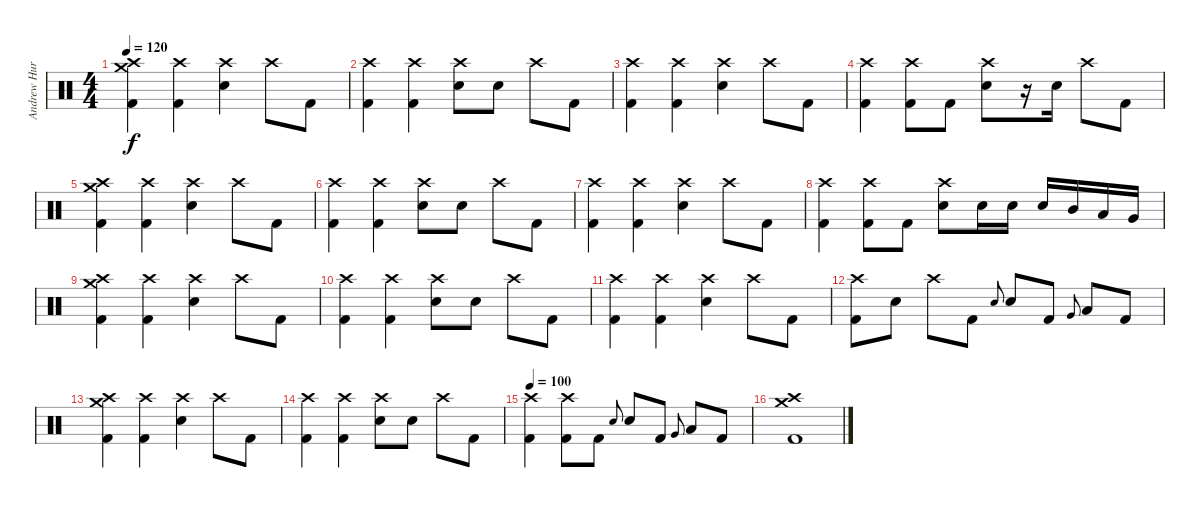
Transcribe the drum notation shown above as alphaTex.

\track ("Andrew Hurley (Drums)" "Andrew Hur") {instrument percussion}
\staff {score}
\articulation defaults
\ts (4 4)
\tempo 120
\clef neutral
\ks c
("Crash high (hit)" "Crash medium (hit)" "Kick (hit) 2").4{dy f} ("Crash high (hit)" "Kick (hit) 2").4 ("Crash high (hit)" "Snare (hit) 2").4 "Crash high (hit)".8 "Kick (hit) 2".8 |
("Crash high (hit)" "Kick (hit) 2").4 ("Crash high (hit)" "Kick (hit) 2").4 ("Crash high (hit)" "Snare (hit) 2").8 "Snare (hit) 2".8 "Crash high (hit)".8 "Kick (hit) 2".8 |
("Crash high (hit)" "Kick (hit) 2").4 ("Crash high (hit)" "Kick (hit) 2").4 ("Crash high (hit)" "Snare (hit) 2").4 "Crash high (hit)".8 "Kick (hit) 2".8 |
("Crash high (hit)" "Kick (hit) 2").4 ("Crash high (hit)" "Kick (hit) 2").8 "Kick (hit) 2".8 ("Crash high (hit)" "Snare (hit) 2").8 r.16 "Snare (hit) 2".16 "Crash high (hit)".8 "Kick (hit) 2".8 |
("Crash high (hit)" "Crash medium (hit)" "Kick (hit) 2").4 ("Crash high (hit)" "Kick (hit) 2").4 ("Crash high (hit)" "Snare (hit) 2").4 "Crash high (hit)".8 "Kick (hit) 2".8 |
("Crash high (hit)" "Kick (hit) 2").4 ("Crash high (hit)" "Kick (hit) 2").4 ("Crash high (hit)" "Snare (hit) 2").8 "Snare (hit) 2".8 "Crash high (hit)".8 "Kick (hit) 2".8 |
("Crash high (hit)" "Kick (hit) 2").4 ("Crash high (hit)" "Kick (hit) 2").4 ("Crash high (hit)" "Snare (hit) 2").4 "Crash high (hit)".8 "Kick (hit) 2".8 |
("Crash high (hit)" "Kick (hit) 2").4 ("Crash high (hit)" "Kick (hit) 2").8 "Kick (hit) 2".8 ("Crash high (hit)" "Snare (hit) 2").8 "Snare (hit) 2".16 "Snare (hit) 2".16 "Snare (hit) 2".16 "Mid Tom (hit)".16 "Low Tom (hit)".16 "Very Low Tom (hit)".16 |
("Crash high (hit)" "Crash medium (hit)" "Kick (hit) 2").4 ("Crash high (hit)" "Kick (hit) 2").4 ("Crash high (hit)" "Snare (hit) 2").4 "Crash high (hit)".8 "Kick (hit) 2".8 |
("Crash high (hit)" "Kick (hit) 2").4 ("Crash high (hit)" "Kick (hit) 2").4 ("Crash high (hit)" "Snare (hit) 2").8 "Snare (hit) 2".8 "Crash high (hit)".8 "Kick (hit) 2".8 |
("Crash high (hit)" "Kick (hit) 2").4 ("Crash high (hit)" "Kick (hit) 2").4 ("Crash high (hit)" "Snare (hit) 2").4 "Crash high (hit)".8 "Kick (hit) 2".8 |
("Crash high (hit)" "Kick (hit) 2").8 "Snare (hit) 2".8 "Crash high (hit)".8 "Kick (hit) 2".8 "Snare (hit) 2".8{gr onbeat} "Snare (hit) 2".8 "Kick (hit) 2".8 "Very Low Tom (hit)".8{gr onbeat} "Low Tom (hit)".8 "Kick (hit) 2".8 |
("Crash high (hit)" "Crash medium (hit)" "Kick (hit) 2").4 ("Crash high (hit)" "Kick (hit) 2").4 ("Crash high (hit)" "Snare (hit) 2").4 "Crash high (hit)".8 "Kick (hit) 2".8 |
("Crash high (hit)" "Kick (hit) 2").4 ("Crash high (hit)" "Kick (hit) 2").4 ("Crash high (hit)" "Snare (hit) 2").8 "Snare (hit) 2".8 "Crash high (hit)".8 "Kick (hit) 2".8 |
\tempo 100
("Crash high (hit)" "Kick (hit) 2").4 ("Crash high (hit)" "Kick (hit) 2").8 "Kick (hit) 2".8 "Snare (hit) 2".8{gr onbeat} "Snare (hit) 2".8 "Kick (hit) 2".8 "Very Low Tom (hit)".8{gr onbeat} "Low Tom (hit)".8 "Kick (hit) 2".8 |
("Crash high (hit)" "Crash medium (hit)" "Kick (hit) 2").1
